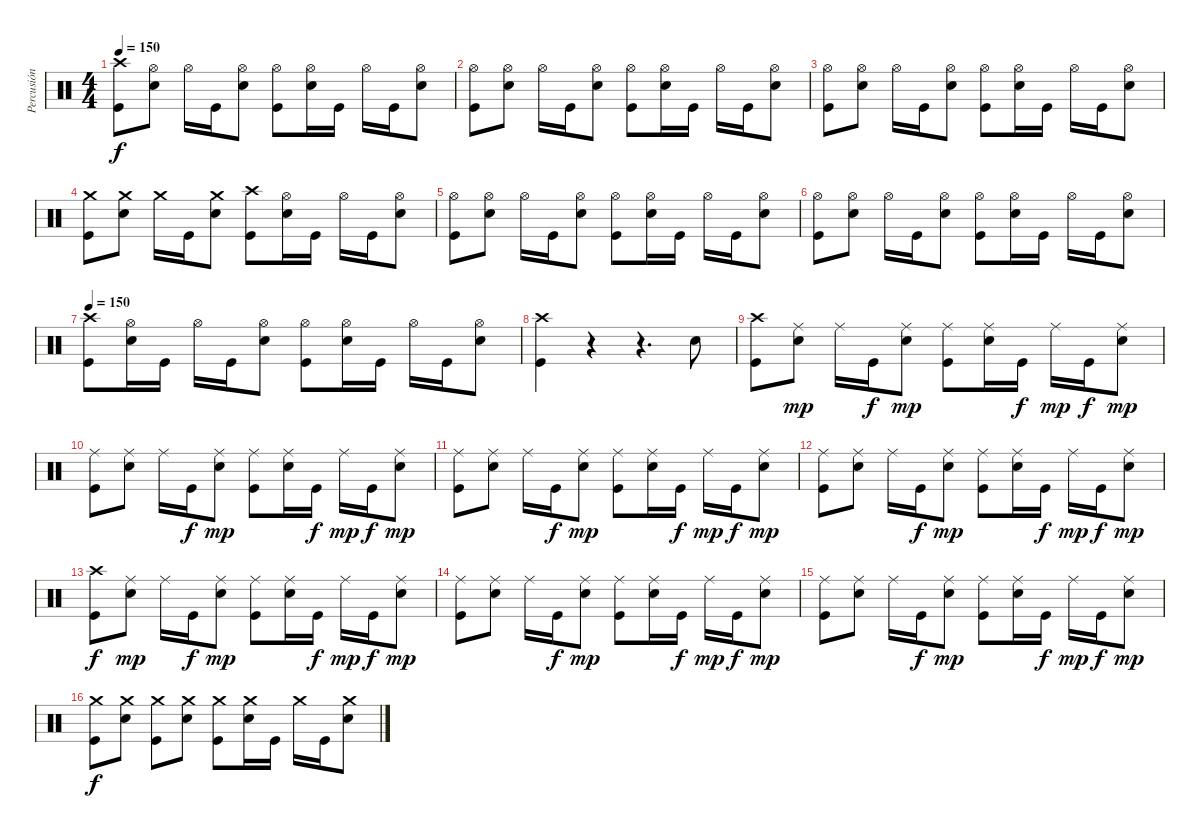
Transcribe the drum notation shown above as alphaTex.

\track ("Percusión" "Percusión") {instrument percussion}
\staff {score}
\articulation defaults
\ts (4 4)
\tempo 150
\clef neutral
\ks c
("Crash high (hit)" "Kick (hit)").8{dy f} ("Hi-Hat (open)" "Snare (hit) 2").8 "Hi-Hat (open)".16 "Kick (hit)".16 ("Hi-Hat (open)" "Snare (hit) 2").8 ("Hi-Hat (open)" "Kick (hit)").8 ("Hi-Hat (open)" "Snare (hit) 2").16 "Kick (hit)".16 "Hi-Hat (open)".16 "Kick (hit)".16 ("Hi-Hat (open)" "Snare (hit) 2").8 |
("Hi-Hat (open)" "Kick (hit)").8 ("Hi-Hat (open)" "Snare (hit) 2").8 "Hi-Hat (open)".16 "Kick (hit)".16 ("Hi-Hat (open)" "Snare (hit) 2").8 ("Hi-Hat (open)" "Kick (hit)").8 ("Hi-Hat (open)" "Snare (hit) 2").16 "Kick (hit)".16 "Hi-Hat (open)".16 "Kick (hit)".16 ("Hi-Hat (open)" "Snare (hit) 2").8 |
("Hi-Hat (open)" "Kick (hit)").8 ("Hi-Hat (open)" "Snare (hit) 2").8 "Hi-Hat (open)".16 "Kick (hit)".16 ("Hi-Hat (open)" "Snare (hit) 2").8 ("Hi-Hat (open)" "Kick (hit)").8 ("Hi-Hat (open)" "Snare (hit) 2").16 "Kick (hit)".16 "Hi-Hat (open)".16 "Kick (hit)".16 ("Hi-Hat (open)" "Snare (hit) 2").8 |
("Crash medium (hit)" "Kick (hit)").8 ("Crash medium (hit)" "Snare (hit) 2").8 "Crash medium (hit)".16 "Kick (hit)".16 ("Crash medium (hit)" "Snare (hit) 2").8 ("Crash high (hit)" "Kick (hit)").8 ("Hi-Hat (open)" "Snare (hit) 2").16 "Kick (hit)".16 "Hi-Hat (open)".16 "Kick (hit)".16 ("Hi-Hat (open)" "Snare (hit) 2").8 |
("Hi-Hat (open)" "Kick (hit)").8 ("Hi-Hat (open)" "Snare (hit) 2").8 "Hi-Hat (open)".16 "Kick (hit)".16 ("Hi-Hat (open)" "Snare (hit) 2").8 ("Hi-Hat (open)" "Kick (hit)").8 ("Hi-Hat (open)" "Snare (hit) 2").16 "Kick (hit)".16 "Hi-Hat (open)".16 "Kick (hit)".16 ("Hi-Hat (open)" "Snare (hit) 2").8 |
("Hi-Hat (open)" "Kick (hit)").8 ("Hi-Hat (open)" "Snare (hit) 2").8 "Hi-Hat (open)".16 "Kick (hit)".16 ("Hi-Hat (open)" "Snare (hit) 2").8 ("Hi-Hat (open)" "Kick (hit)").8 ("Hi-Hat (open)" "Snare (hit) 2").16 "Kick (hit)".16 "Hi-Hat (open)".16 "Kick (hit)".16 ("Hi-Hat (open)" "Snare (hit) 2").8 |
\tempo 150
("Crash high (hit)" "Kick (hit)").8 ("Hi-Hat (open)" "Snare (hit) 2").16 "Kick (hit)".16 "Hi-Hat (open)".16 "Kick (hit)".16 ("Hi-Hat (open)" "Snare (hit) 2").8 ("Hi-Hat (open)" "Kick (hit)").8 ("Hi-Hat (open)" "Snare (hit) 2").16 "Kick (hit)".16 "Hi-Hat (open)".16 "Kick (hit)".16 ("Hi-Hat (open)" "Snare (hit) 2").8 |
("Crash high (hit)" "Kick (hit)").4 r.4 r.4{d} "Snare (hit) 2".8 |
("Crash high (hit)" "Kick (hit)").8 ("Ride (middle)" "Snare (hit) 2").8{dy mp} "Ride (middle)".16 "Kick (hit)".16{dy f} ("Ride (middle)" "Snare (hit) 2").8{dy mp} ("Ride (middle)" "Kick (hit)").8 ("Ride (middle)" "Snare (hit) 2").16 "Kick (hit)".16{dy f} "Ride (middle)".16{dy mp} "Kick (hit)".16{dy f} ("Ride (middle)" "Snare (hit) 2").8{dy mp} |
("Ride (middle)" "Kick (hit)").8 ("Ride (middle)" "Snare (hit) 2").8 "Ride (middle)".16 "Kick (hit)".16{dy f} ("Ride (middle)" "Snare (hit) 2").8{dy mp} ("Ride (middle)" "Kick (hit)").8 ("Ride (middle)" "Snare (hit) 2").16 "Kick (hit)".16{dy f} "Ride (middle)".16{dy mp} "Kick (hit)".16{dy f} ("Ride (middle)" "Snare (hit) 2").8{dy mp} |
("Ride (middle)" "Kick (hit)").8 ("Ride (middle)" "Snare (hit) 2").8 "Ride (middle)".16 "Kick (hit)".16{dy f} ("Ride (middle)" "Snare (hit) 2").8{dy mp} ("Ride (middle)" "Kick (hit)").8 ("Ride (middle)" "Snare (hit) 2").16 "Kick (hit)".16{dy f} "Ride (middle)".16{dy mp} "Kick (hit)".16{dy f} ("Ride (middle)" "Snare (hit) 2").8{dy mp} |
("Ride (middle)" "Kick (hit)").8 ("Ride (middle)" "Snare (hit) 2").8 "Ride (middle)".16 "Kick (hit)".16{dy f} ("Ride (middle)" "Snare (hit) 2").8{dy mp} ("Ride (middle)" "Kick (hit)").8 ("Ride (middle)" "Snare (hit) 2").16 "Kick (hit)".16{dy f} "Ride (middle)".16{dy mp} "Kick (hit)".16{dy f} ("Ride (middle)" "Snare (hit) 2").8{dy mp} |
("Crash high (hit)" "Kick (hit)").8{dy f} ("Ride (middle)" "Snare (hit) 2").8{dy mp} "Ride (middle)".16 "Kick (hit)".16{dy f} ("Ride (middle)" "Snare (hit) 2").8{dy mp} ("Ride (middle)" "Kick (hit)").8 ("Ride (middle)" "Snare (hit) 2").16 "Kick (hit)".16{dy f} "Ride (middle)".16{dy mp} "Kick (hit)".16{dy f} ("Ride (middle)" "Snare (hit) 2").8{dy mp} |
("Ride (middle)" "Kick (hit)").8 ("Ride (middle)" "Snare (hit) 2").8 "Ride (middle)".16 "Kick (hit)".16{dy f} ("Ride (middle)" "Snare (hit) 2").8{dy mp} ("Ride (middle)" "Kick (hit)").8 ("Ride (middle)" "Snare (hit) 2").16 "Kick (hit)".16{dy f} "Ride (middle)".16{dy mp} "Kick (hit)".16{dy f} ("Ride (middle)" "Snare (hit) 2").8{dy mp} |
("Ride (middle)" "Kick (hit)").8 ("Ride (middle)" "Snare (hit) 2").8 "Ride (middle)".16 "Kick (hit)".16{dy f} ("Ride (middle)" "Snare (hit) 2").8{dy mp} ("Ride (middle)" "Kick (hit)").8 ("Ride (middle)" "Snare (hit) 2").16 "Kick (hit)".16{dy f} "Ride (middle)".16{dy mp} "Kick (hit)".16{dy f} ("Ride (middle)" "Snare (hit) 2").8{dy mp} |
("Crash medium (hit)" "Kick (hit)").8{dy f} ("Crash medium (hit)" "Snare (hit) 2").8 ("Crash medium (hit)" "Kick (hit)").8 ("Crash medium (hit)" "Snare (hit) 2").8 ("Crash medium (hit)" "Kick (hit)").8 ("Crash medium (hit)" "Snare (hit) 2").16 "Kick (hit)".16 "Crash medium (hit)".16 "Kick (hit)".16 ("Crash medium (hit)" "Snare (hit) 2").8
